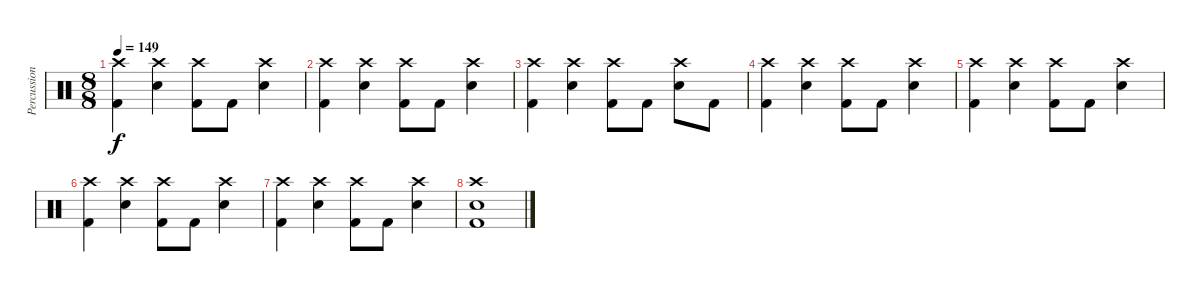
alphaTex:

\track ("Percussion" "Percussion") {instrument percussion}
\staff {score}
\articulation defaults
\ts (8 8)
\tempo 149
\clef neutral
\ks c
("Crash high (hit)" "Kick (hit) 2").4{dy f} ("Crash high (hit)" "Snare (hit) 2").4 ("Crash high (hit)" "Kick (hit) 2").8 "Kick (hit) 2".8 ("Crash high (hit)" "Snare (hit) 2").4 |
("Crash high (hit)" "Kick (hit) 2").4 ("Crash high (hit)" "Snare (hit) 2").4 ("Crash high (hit)" "Kick (hit) 2").8 "Kick (hit) 2".8 ("Crash high (hit)" "Snare (hit) 2").4 |
("Crash high (hit)" "Kick (hit) 2").4 ("Crash high (hit)" "Snare (hit) 2").4 ("Crash high (hit)" "Kick (hit) 2").8 "Kick (hit) 2".8 ("Crash high (hit)" "Snare (hit) 2").8 "Kick (hit) 2".8 |
("Crash high (hit)" "Kick (hit) 2").4 ("Crash high (hit)" "Snare (hit) 2").4 ("Crash high (hit)" "Kick (hit) 2").8 "Kick (hit) 2".8 ("Crash high (hit)" "Snare (hit) 2").4 |
("Crash high (hit)" "Kick (hit) 2").4 ("Crash high (hit)" "Snare (hit) 2").4 ("Crash high (hit)" "Kick (hit) 2").8 "Kick (hit) 2".8 ("Crash high (hit)" "Snare (hit) 2").4 |
("Crash high (hit)" "Kick (hit) 2").4 ("Crash high (hit)" "Snare (hit) 2").4 ("Crash high (hit)" "Kick (hit) 2").8 "Kick (hit) 2".8 ("Crash high (hit)" "Snare (hit) 2").4 |
("Crash high (hit)" "Kick (hit) 2").4 ("Crash high (hit)" "Snare (hit) 2").4 ("Crash high (hit)" "Kick (hit) 2").8 "Kick (hit) 2".8 ("Crash high (hit)" "Snare (hit) 2").4 |
("Crash high (hit)" "Snare (hit) 2" "Kick (hit) 2").1
